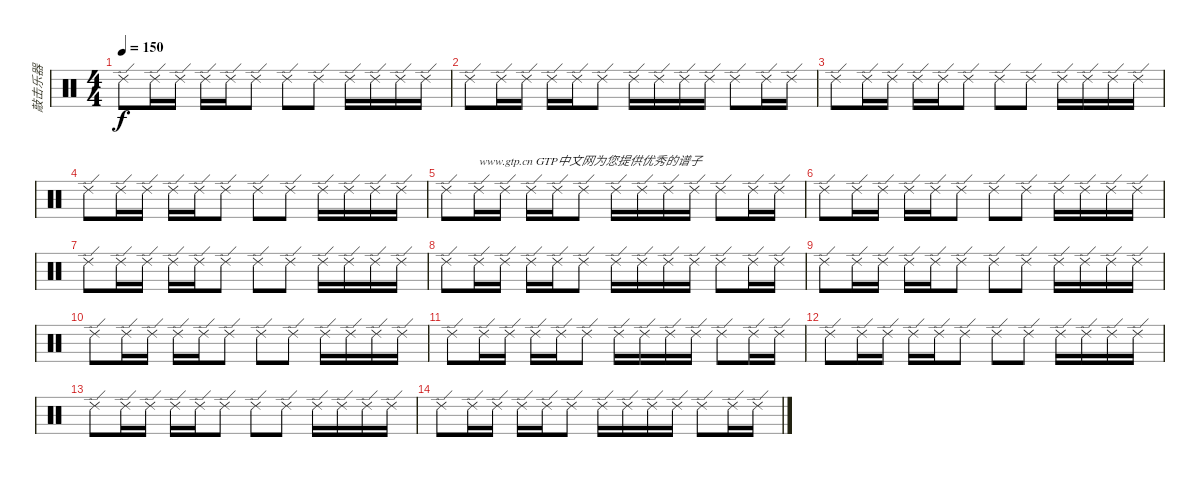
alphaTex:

\track ("敲击乐器" "敲击乐器") {instrument percussion}
\staff {score}
\articulation defaults
\ts (4 4)
\tempo 150
\clef neutral
\ks c "Ride (edge) 2".8{dy f} "Ride (edge) 2".16 "Ride (edge) 2".16 "Ride (edge) 2".16 "Ride (edge) 2".16 "Ride (edge) 2".8 "Ride (edge) 2".8 "Ride (edge) 2".8 "Ride (edge) 2".16 "Ride (edge) 2".16 "Ride (edge) 2".16 "Ride (edge) 2".16
|
"Ride (edge) 2".8 "Ride (edge) 2".16 "Ride (edge) 2".16 "Ride (edge) 2".16 "Ride (edge) 2".16 "Ride (edge) 2".8 "Ride (edge) 2".16 "Ride (edge) 2".16 "Ride (edge) 2".16 "Ride (edge) 2".16 "Ride (edge) 2".8 "Ride (edge) 2".16 "Ride (edge) 2".16 |
"Ride (edge) 2".8 "Ride (edge) 2".16 "Ride (edge) 2".16 "Ride (edge) 2".16 "Ride (edge) 2".16 "Ride (edge) 2".8 "Ride (edge) 2".8 "Ride (edge) 2".8 "Ride (edge) 2".16 "Ride (edge) 2".16 "Ride (edge) 2".16 "Ride (edge) 2".16 |
"Ride (edge) 2".8 "Ride (edge) 2".16 "Ride (edge) 2".16 "Ride (edge) 2".16 "Ride (edge) 2".16 "Ride (edge) 2".8 "Ride (edge) 2".8 "Ride (edge) 2".8 "Ride (edge) 2".16 "Ride (edge) 2".16 "Ride (edge) 2".16 "Ride (edge) 2".16 |
"Ride (edge) 2".8 "Ride (edge) 2".16{txt "www.gtp.cn GTP中文网为您提供优秀的谱子"} "Ride (edge) 2".16 "Ride (edge) 2".16 "Ride (edge) 2".16 "Ride (edge) 2".8 "Ride (edge) 2".16 "Ride (edge) 2".16 "Ride (edge) 2".16 "Ride (edge) 2".16 "Ride (edge) 2".8 "Ride (edge) 2".16 "Ride (edge) 2".16 |
"Ride (edge) 2".8 "Ride (edge) 2".16 "Ride (edge) 2".16 "Ride (edge) 2".16 "Ride (edge) 2".16 "Ride (edge) 2".8 "Ride (edge) 2".8 "Ride (edge) 2".8 "Ride (edge) 2".16 "Ride (edge) 2".16 "Ride (edge) 2".16 "Ride (edge) 2".16 |
"Ride (edge) 2".8 "Ride (edge) 2".16 "Ride (edge) 2".16 "Ride (edge) 2".16 "Ride (edge) 2".16 "Ride (edge) 2".8 "Ride (edge) 2".8 "Ride (edge) 2".8 "Ride (edge) 2".16 "Ride (edge) 2".16 "Ride (edge) 2".16 "Ride (edge) 2".16 |
"Ride (edge) 2".8 "Ride (edge) 2".16 "Ride (edge) 2".16 "Ride (edge) 2".16 "Ride (edge) 2".16 "Ride (edge) 2".8 "Ride (edge) 2".16 "Ride (edge) 2".16 "Ride (edge) 2".16 "Ride (edge) 2".16 "Ride (edge) 2".8 "Ride (edge) 2".16 "Ride (edge) 2".16 |
"Ride (edge) 2".8 "Ride (edge) 2".16 "Ride (edge) 2".16 "Ride (edge) 2".16 "Ride (edge) 2".16 "Ride (edge) 2".8 "Ride (edge) 2".8 "Ride (edge) 2".8 "Ride (edge) 2".16 "Ride (edge) 2".16 "Ride (edge) 2".16 "Ride (edge) 2".16 |
"Ride (edge) 2".8 "Ride (edge) 2".16 "Ride (edge) 2".16 "Ride (edge) 2".16 "Ride (edge) 2".16 "Ride (edge) 2".8 "Ride (edge) 2".8 "Ride (edge) 2".8 "Ride (edge) 2".16 "Ride (edge) 2".16 "Ride (edge) 2".16 "Ride (edge) 2".16 |
"Ride (edge) 2".8 "Ride (edge) 2".16 "Ride (edge) 2".16 "Ride (edge) 2".16 "Ride (edge) 2".16 "Ride (edge) 2".8 "Ride (edge) 2".16 "Ride (edge) 2".16 "Ride (edge) 2".16 "Ride (edge) 2".16 "Ride (edge) 2".8 "Ride (edge) 2".16 "Ride (edge) 2".16 |
"Ride (edge) 2".8 "Ride (edge) 2".16 "Ride (edge) 2".16 "Ride (edge) 2".16 "Ride (edge) 2".16 "Ride (edge) 2".8 "Ride (edge) 2".8 "Ride (edge) 2".8 "Ride (edge) 2".16 "Ride (edge) 2".16 "Ride (edge) 2".16 "Ride (edge) 2".16 |
"Ride (edge) 2".8 "Ride (edge) 2".16 "Ride (edge) 2".16 "Ride (edge) 2".16 "Ride (edge) 2".16 "Ride (edge) 2".8 "Ride (edge) 2".8 "Ride (edge) 2".8 "Ride (edge) 2".16 "Ride (edge) 2".16 "Ride (edge) 2".16 "Ride (edge) 2".16 |
"Ride (edge) 2".8 "Ride (edge) 2".16 "Ride (edge) 2".16 "Ride (edge) 2".16 "Ride (edge) 2".16 "Ride (edge) 2".8 "Ride (edge) 2".16 "Ride (edge) 2".16 "Ride (edge) 2".16 "Ride (edge) 2".16 "Ride (edge) 2".8 "Ride (edge) 2".16 "Ride (edge) 2".16
